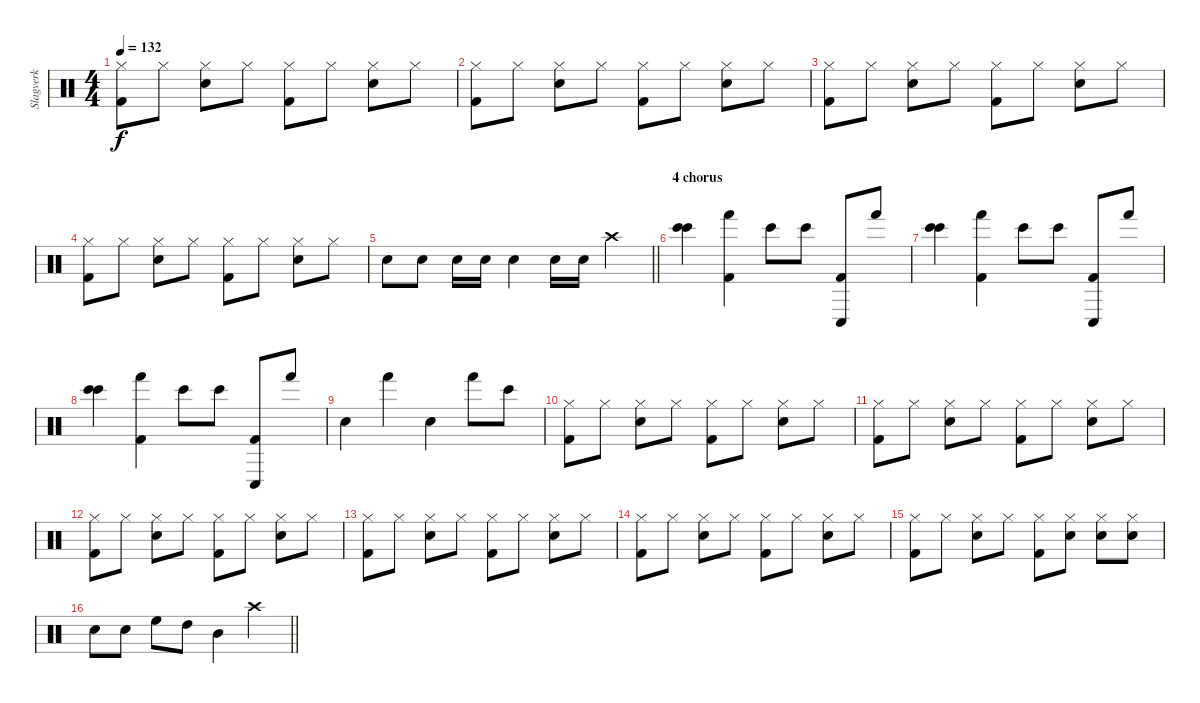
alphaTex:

\track ("Slagverk" "Slagverk") {instrument percussion}
\staff {score}
\articulation defaults
\ts (4 4)
\tempo 132
\clef neutral
\ks c
("Kick (hit) 2" "Hi-Hat (closed)").8{dy f} "Hi-Hat (closed)".8 ("Snare (hit) 2" "Hi-Hat (closed)").8 "Hi-Hat (closed)".8 ("Kick (hit) 2" "Hi-Hat (closed)").8 "Hi-Hat (closed)".8 ("Snare (hit) 2" "Hi-Hat (closed)").8 "Hi-Hat (closed)".8 |
("Kick (hit) 2" "Hi-Hat (closed)").8 "Hi-Hat (closed)".8 ("Snare (hit) 2" "Hi-Hat (closed)").8 "Hi-Hat (closed)".8 ("Kick (hit) 2" "Hi-Hat (closed)").8 "Hi-Hat (closed)".8 ("Snare (hit) 2" "Hi-Hat (closed)").8 "Hi-Hat (closed)".8 |
("Kick (hit) 2" "Hi-Hat (closed)").8 "Hi-Hat (closed)".8 ("Snare (hit) 2" "Hi-Hat (closed)").8 "Hi-Hat (closed)".8 ("Kick (hit) 2" "Hi-Hat (closed)").8 "Hi-Hat (closed)".8 ("Snare (hit) 2" "Hi-Hat (closed)").8 "Hi-Hat (closed)".8 |
("Kick (hit) 2" "Hi-Hat (closed)").8 "Hi-Hat (closed)".8 ("Snare (hit) 2" "Hi-Hat (closed)").8 "Hi-Hat (closed)".8 ("Kick (hit) 2" "Hi-Hat (closed)").8 "Hi-Hat (closed)".8 ("Snare (hit) 2" "Hi-Hat (closed)").8 "Hi-Hat (closed)".8 |
\barLineRight lightlight "Snare (hit) 2".8 "Snare (hit) 2".8 "Snare (hit) 2".16 "Snare (hit) 2".16 "Snare (hit) 2".4 "Snare (hit) 2".16 "Snare (hit) 2".16 "Crash high (hit)".4
|
\section ("" "4 chorus")
("Bongo High (hit)" "Bongo High (hit)").4 ("Kick (hit) 2" "Hand (hit)").4 "Bongo High (hit)".8 "Bongo High (hit)".8 ("Kick (hit) 2" "Conga low (hit)").8 "Hand (hit)".8 |
("Bongo High (hit)" "Bongo High (hit)").4 ("Kick (hit) 2" "Hand (hit)").4 "Bongo High (hit)".8 "Bongo High (hit)".8 ("Kick (hit) 2" "Conga low (hit)").8 "Hand (hit)".8 |
("Bongo High (hit)" "Bongo High (hit)").4 ("Kick (hit) 2" "Hand (hit)").4 "Bongo High (hit)".8 "Bongo High (hit)".8 ("Kick (hit) 2" "Conga low (hit)").8 "Hand (hit)".8 |
"Snare (hit) 2".4 "Hand (hit)".4 "Snare (hit) 2".4 "Hand (hit)".8 "Bongo High (hit)".8 |
("Kick (hit) 2" "Hi-Hat (closed)").8 "Hi-Hat (closed)".8 ("Snare (hit) 2" "Hi-Hat (closed)").8 "Hi-Hat (closed)".8 ("Kick (hit) 2" "Hi-Hat (closed)").8 "Hi-Hat (closed)".8 ("Snare (hit) 2" "Hi-Hat (closed)").8 "Hi-Hat (closed)".8 |
("Kick (hit) 2" "Hi-Hat (closed)").8 "Hi-Hat (closed)".8 ("Snare (hit) 2" "Hi-Hat (closed)").8 "Hi-Hat (closed)".8 ("Kick (hit) 2" "Hi-Hat (closed)").8 "Hi-Hat (closed)".8 ("Snare (hit) 2" "Hi-Hat (closed)").8 "Hi-Hat (closed)".8 |
("Kick (hit) 2" "Hi-Hat (closed)").8 "Hi-Hat (closed)".8 ("Snare (hit) 2" "Hi-Hat (closed)").8 "Hi-Hat (closed)".8 ("Kick (hit) 2" "Hi-Hat (closed)").8 "Hi-Hat (closed)".8 ("Snare (hit) 2" "Hi-Hat (closed)").8 "Hi-Hat (closed)".8 |
("Kick (hit) 2" "Hi-Hat (closed)").8 "Hi-Hat (closed)".8 ("Snare (hit) 2" "Hi-Hat (closed)").8 "Hi-Hat (closed)".8 ("Kick (hit) 2" "Hi-Hat (closed)").8 "Hi-Hat (closed)".8 ("Snare (hit) 2" "Hi-Hat (closed)").8 "Hi-Hat (closed)".8 |
("Kick (hit) 2" "Hi-Hat (closed)").8 "Hi-Hat (closed)".8 ("Snare (hit) 2" "Hi-Hat (closed)").8 "Hi-Hat (closed)".8 ("Kick (hit) 2" "Hi-Hat (closed)").8 "Hi-Hat (closed)".8 ("Snare (hit) 2" "Hi-Hat (closed)").8 "Hi-Hat (closed)".8 |
("Kick (hit) 2" "Hi-Hat (closed)").8 "Hi-Hat (closed)".8 ("Snare (hit) 2" "Hi-Hat (closed)").8 "Hi-Hat (closed)".8 ("Kick (hit) 2" "Hi-Hat (closed)").8 ("Snare (hit) 2" "Hi-Hat (closed)").8 ("Snare (hit) 2" "Hi-Hat (closed)").8 ("Snare (hit) 2" "Hi-Hat (closed)").8 |
\barLineRight lightlight "Snare (hit) 2".8 "Snare (hit) 2".8 "High Floor Tom (hit)".8 "High Tom (hit)".8 "Mid Tom (hit)".4 "Crash high (hit)".4
